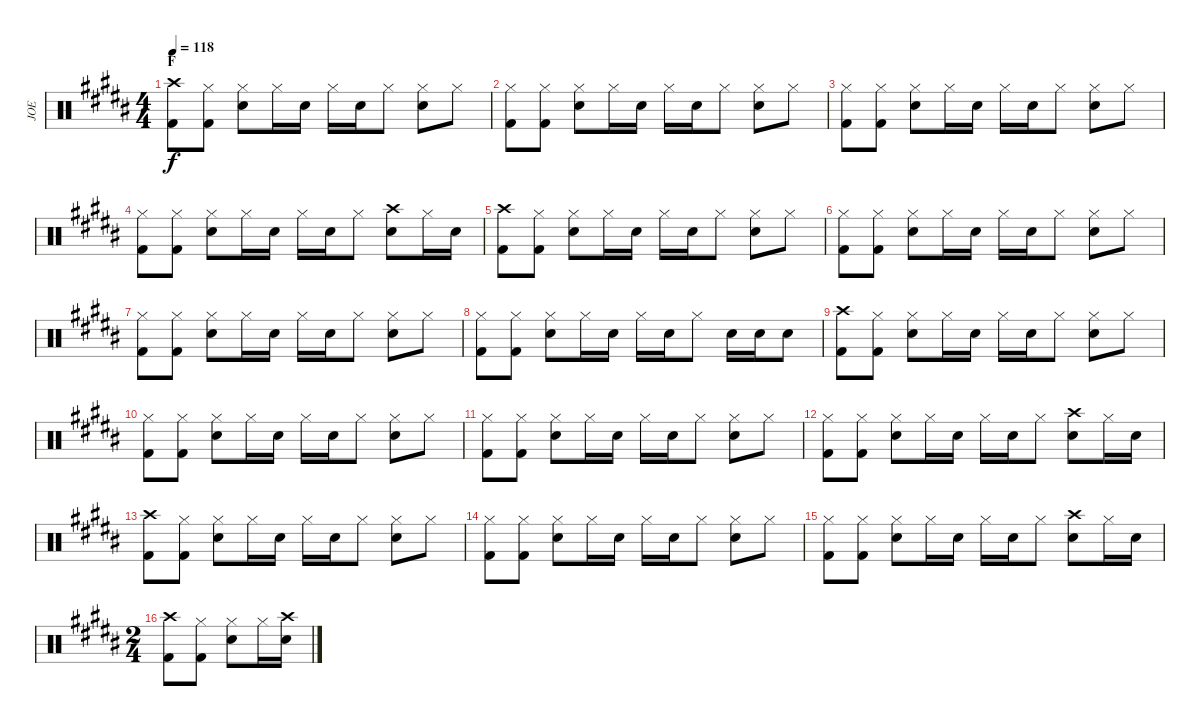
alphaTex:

\track ("JOE" "JOE") {instrument percussion}
\staff {score}
\articulation defaults
\ts (4 4)
\section ("" "F")
\tempo 118
\clef neutral
\ks b
("Crash high (hit)" "Kick (hit) 2").8{dy f} ("Hi-Hat (closed)" "Kick (hit) 2").8 ("Hi-Hat (closed)" "Snare (hit) 2").8 "Hi-Hat (closed)".16 "Snare (hit) 2".16 "Hi-Hat (closed)".16 "Snare (hit) 2".16 "Hi-Hat (closed)".8 ("Hi-Hat (closed)" "Snare (hit) 2").8 "Hi-Hat (closed)".8 |
("Hi-Hat (closed)" "Kick (hit) 2").8 ("Hi-Hat (closed)" "Kick (hit) 2").8 ("Hi-Hat (closed)" "Snare (hit) 2").8 "Hi-Hat (closed)".16 "Snare (hit) 2".16 "Hi-Hat (closed)".16 "Snare (hit) 2".16 "Hi-Hat (closed)".8 ("Hi-Hat (closed)" "Snare (hit) 2").8 "Hi-Hat (closed)".8 |
("Hi-Hat (closed)" "Kick (hit) 2").8 ("Hi-Hat (closed)" "Kick (hit) 2").8 ("Hi-Hat (closed)" "Snare (hit) 2").8 "Hi-Hat (closed)".16 "Snare (hit) 2".16 "Hi-Hat (closed)".16 "Snare (hit) 2".16 "Hi-Hat (closed)".8 ("Hi-Hat (closed)" "Snare (hit) 2").8 "Hi-Hat (closed)".8 |
("Hi-Hat (closed)" "Kick (hit) 2").8 ("Hi-Hat (closed)" "Kick (hit) 2").8 ("Hi-Hat (closed)" "Snare (hit) 2").8 "Hi-Hat (closed)".16 "Snare (hit) 2".16 "Hi-Hat (closed)".16 "Snare (hit) 2".16 "Hi-Hat (closed)".8 ("Crash high (hit)" "Snare (hit) 2").8 "Hi-Hat (closed)".16 "Snare (hit) 2".16 |
("Crash high (hit)" "Kick (hit) 2").8 ("Hi-Hat (closed)" "Kick (hit) 2").8 ("Hi-Hat (closed)" "Snare (hit) 2").8 "Hi-Hat (closed)".16 "Snare (hit) 2".16 "Hi-Hat (closed)".16 "Snare (hit) 2".16 "Hi-Hat (closed)".8 ("Hi-Hat (closed)" "Snare (hit) 2").8 "Hi-Hat (closed)".8 |
("Hi-Hat (closed)" "Kick (hit) 2").8 ("Hi-Hat (closed)" "Kick (hit) 2").8 ("Hi-Hat (closed)" "Snare (hit) 2").8 "Hi-Hat (closed)".16 "Snare (hit) 2".16 "Hi-Hat (closed)".16 "Snare (hit) 2".16 "Hi-Hat (closed)".8 ("Hi-Hat (closed)" "Snare (hit) 2").8 "Hi-Hat (closed)".8 |
("Hi-Hat (closed)" "Kick (hit) 2").8 ("Hi-Hat (closed)" "Kick (hit) 2").8 ("Hi-Hat (closed)" "Snare (hit) 2").8 "Hi-Hat (closed)".16 "Snare (hit) 2".16 "Hi-Hat (closed)".16 "Snare (hit) 2".16 "Hi-Hat (closed)".8 ("Hi-Hat (closed)" "Snare (hit) 2").8 "Hi-Hat (closed)".8 |
("Hi-Hat (closed)" "Kick (hit) 2").8 ("Hi-Hat (closed)" "Kick (hit) 2").8 ("Hi-Hat (closed)" "Snare (hit) 2").8 "Hi-Hat (closed)".16 "Snare (hit) 2".16 "Hi-Hat (closed)".16 "Snare (hit) 2".16 "Hi-Hat (closed)".8 "Snare (hit) 2".16 "Snare (hit) 2".16 "Snare (hit) 2".8 |
("Crash high (hit)" "Kick (hit) 2").8 ("Hi-Hat (closed)" "Kick (hit) 2").8 ("Hi-Hat (closed)" "Snare (hit) 2").8 "Hi-Hat (closed)".16 "Snare (hit) 2".16 "Hi-Hat (closed)".16 "Snare (hit) 2".16 "Hi-Hat (closed)".8 ("Hi-Hat (closed)" "Snare (hit) 2").8 "Hi-Hat (closed)".8 |
("Hi-Hat (closed)" "Kick (hit) 2").8 ("Hi-Hat (closed)" "Kick (hit) 2").8 ("Hi-Hat (closed)" "Snare (hit) 2").8 "Hi-Hat (closed)".16 "Snare (hit) 2".16 "Hi-Hat (closed)".16 "Snare (hit) 2".16 "Hi-Hat (closed)".8 ("Hi-Hat (closed)" "Snare (hit) 2").8 "Hi-Hat (closed)".8 |
("Hi-Hat (closed)" "Kick (hit) 2").8 ("Hi-Hat (closed)" "Kick (hit) 2").8 ("Hi-Hat (closed)" "Snare (hit) 2").8 "Hi-Hat (closed)".16 "Snare (hit) 2".16 "Hi-Hat (closed)".16 "Snare (hit) 2".16 "Hi-Hat (closed)".8 ("Hi-Hat (closed)" "Snare (hit) 2").8 "Hi-Hat (closed)".8 |
("Hi-Hat (closed)" "Kick (hit) 2").8 ("Hi-Hat (closed)" "Kick (hit) 2").8 ("Hi-Hat (closed)" "Snare (hit) 2").8 "Hi-Hat (closed)".16 "Snare (hit) 2".16 "Hi-Hat (closed)".16 "Snare (hit) 2".16 "Hi-Hat (closed)".8 ("Crash high (hit)" "Snare (hit) 2").8 "Hi-Hat (closed)".16 "Snare (hit) 2".16 |
("Crash high (hit)" "Kick (hit) 2").8 ("Hi-Hat (closed)" "Kick (hit) 2").8 ("Hi-Hat (closed)" "Snare (hit) 2").8 "Hi-Hat (closed)".16 "Snare (hit) 2".16 "Hi-Hat (closed)".16 "Snare (hit) 2".16 "Hi-Hat (closed)".8 ("Hi-Hat (closed)" "Snare (hit) 2").8 "Hi-Hat (closed)".8 |
("Hi-Hat (closed)" "Kick (hit) 2").8 ("Hi-Hat (closed)" "Kick (hit) 2").8 ("Hi-Hat (closed)" "Snare (hit) 2").8 "Hi-Hat (closed)".16 "Snare (hit) 2".16 "Hi-Hat (closed)".16 "Snare (hit) 2".16 "Hi-Hat (closed)".8 ("Hi-Hat (closed)" "Snare (hit) 2").8 "Hi-Hat (closed)".8 |
("Hi-Hat (closed)" "Kick (hit) 2").8 ("Hi-Hat (closed)" "Kick (hit) 2").8 ("Hi-Hat (closed)" "Snare (hit) 2").8 "Hi-Hat (closed)".16 "Snare (hit) 2".16 "Hi-Hat (closed)".16 "Snare (hit) 2".16 "Hi-Hat (closed)".8 ("Crash high (hit)" "Snare (hit) 2").8 "Hi-Hat (closed)".16 "Snare (hit) 2".16 |
\ts (2 4)
("Crash high (hit)" "Kick (hit) 2").8 ("Hi-Hat (closed)" "Kick (hit) 2").8 ("Hi-Hat (closed)" "Snare (hit) 2").8 "Hi-Hat (closed)".16 ("Crash high (hit)" "Snare (hit) 2").16
